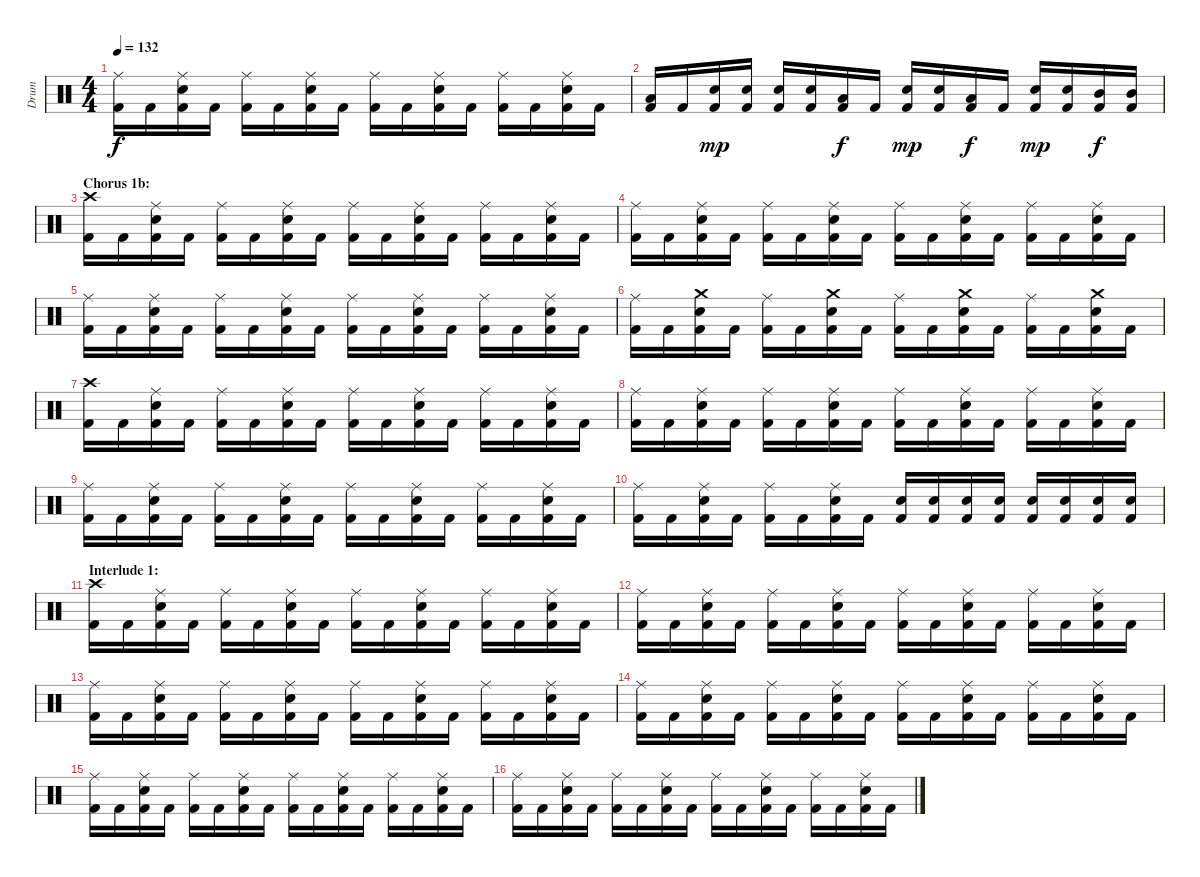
\track ("Drum" "Drum") {instrument percussion}
\staff {score}
\articulation defaults
\ts (4 4)
\tempo 132
\clef neutral
\ks c
("Kick (hit) 2" "Ride (middle)").16{dy f} "Kick (hit) 2".16 ("Kick (hit) 2" "Snare (hit) 2" "Ride (middle)").16 "Kick (hit) 2".16 ("Kick (hit) 2" "Ride (middle)").16 "Kick (hit) 2".16 ("Kick (hit) 2" "Snare (hit) 2" "Ride (middle)").16 "Kick (hit) 2".16 ("Kick (hit) 2" "Ride (middle)").16 "Kick (hit) 2".16 ("Kick (hit) 2" "Snare (hit) 2" "Ride (middle)").16 "Kick (hit) 2".16 ("Kick (hit) 2" "Ride (middle)").16 "Kick (hit) 2".16 ("Kick (hit) 2" "Snare (hit) 2" "Ride (middle)").16 "Kick (hit) 2".16 |
("Kick (hit) 2" "Low Tom (hit)").16 "Kick (hit) 2".16 ("Kick (hit) 2" "Snare (hit) 2").16{dy mp} ("Kick (hit) 2" "Snare (hit) 2").16 ("Kick (hit) 2" "Snare (hit) 2").16 ("Kick (hit) 2" "Snare (hit) 2").16 ("Kick (hit) 2" "Low Tom (hit)").16{dy f} "Kick (hit) 2".16 ("Kick (hit) 2" "Snare (hit) 2").16{dy mp} ("Kick (hit) 2" "Snare (hit) 2").16 ("Kick (hit) 2" "Low Tom (hit)").16{dy f} "Kick (hit) 2".16 ("Kick (hit) 2" "Snare (hit) 2").16{dy mp} ("Kick (hit) 2" "Snare (hit) 2").16 ("Kick (hit) 2" "Mid Tom (hit)").16{dy f} ("Kick (hit) 2" "Mid Tom (hit)").16 |
\section ("" "Chorus 1b:")
("Kick (hit) 2" "Crash high (hit)").16 "Kick (hit) 2".16 ("Kick (hit) 2" "Snare (hit) 2" "Ride (middle)").16 "Kick (hit) 2".16 ("Kick (hit) 2" "Ride (middle)").16 "Kick (hit) 2".16 ("Kick (hit) 2" "Snare (hit) 2" "Ride (middle)").16 "Kick (hit) 2".16 ("Kick (hit) 2" "Ride (middle)").16 "Kick (hit) 2".16 ("Kick (hit) 2" "Snare (hit) 2" "Ride (middle)").16 "Kick (hit) 2".16 ("Kick (hit) 2" "Ride (middle)").16 "Kick (hit) 2".16 ("Kick (hit) 2" "Snare (hit) 2" "Ride (middle)").16 "Kick (hit) 2".16 |
("Kick (hit) 2" "Ride (middle)").16 "Kick (hit) 2".16 ("Kick (hit) 2" "Snare (hit) 2" "Ride (middle)").16 "Kick (hit) 2".16 ("Kick (hit) 2" "Ride (middle)").16 "Kick (hit) 2".16 ("Kick (hit) 2" "Snare (hit) 2" "Ride (middle)").16 "Kick (hit) 2".16 ("Kick (hit) 2" "Ride (middle)").16 "Kick (hit) 2".16 ("Kick (hit) 2" "Snare (hit) 2" "Ride (middle)").16 "Kick (hit) 2".16 ("Kick (hit) 2" "Ride (middle)").16 "Kick (hit) 2".16 ("Kick (hit) 2" "Snare (hit) 2" "Ride (middle)").16 "Kick (hit) 2".16 |
("Kick (hit) 2" "Ride (middle)").16 "Kick (hit) 2".16 ("Kick (hit) 2" "Snare (hit) 2" "Ride (middle)").16 "Kick (hit) 2".16 ("Kick (hit) 2" "Ride (middle)").16 "Kick (hit) 2".16 ("Kick (hit) 2" "Snare (hit) 2" "Ride (middle)").16 "Kick (hit) 2".16 ("Kick (hit) 2" "Ride (middle)").16 "Kick (hit) 2".16 ("Kick (hit) 2" "Snare (hit) 2" "Ride (middle)").16 "Kick (hit) 2".16 ("Kick (hit) 2" "Ride (middle)").16 "Kick (hit) 2".16 ("Kick (hit) 2" "Snare (hit) 2" "Ride (middle)").16 "Kick (hit) 2".16 |
("Kick (hit) 2" "Ride (middle)").16 "Kick (hit) 2".16 ("Kick (hit) 2" "Snare (hit) 2" "Crash medium (hit)").16 "Kick (hit) 2".16 ("Kick (hit) 2" "Ride (middle)").16 "Kick (hit) 2".16 ("Kick (hit) 2" "Snare (hit) 2" "Crash medium (hit)").16 "Kick (hit) 2".16 ("Kick (hit) 2" "Ride (middle)").16 "Kick (hit) 2".16 ("Kick (hit) 2" "Snare (hit) 2" "Crash medium (hit)").16 "Kick (hit) 2".16 ("Kick (hit) 2" "Ride (middle)").16 "Kick (hit) 2".16 ("Kick (hit) 2" "Snare (hit) 2" "Crash medium (hit)").16 "Kick (hit) 2".16 |
("Kick (hit) 2" "Crash high (hit)").16 "Kick (hit) 2".16 ("Kick (hit) 2" "Snare (hit) 2" "Ride (middle)").16 "Kick (hit) 2".16 ("Kick (hit) 2" "Ride (middle)").16 "Kick (hit) 2".16 ("Kick (hit) 2" "Snare (hit) 2" "Ride (middle)").16 "Kick (hit) 2".16 ("Kick (hit) 2" "Ride (middle)").16 "Kick (hit) 2".16 ("Kick (hit) 2" "Snare (hit) 2" "Ride (middle)").16 "Kick (hit) 2".16 ("Kick (hit) 2" "Ride (middle)").16 "Kick (hit) 2".16 ("Kick (hit) 2" "Snare (hit) 2" "Ride (middle)").16 "Kick (hit) 2".16 |
("Kick (hit) 2" "Ride (middle)").16 "Kick (hit) 2".16 ("Kick (hit) 2" "Snare (hit) 2" "Ride (middle)").16 "Kick (hit) 2".16 ("Kick (hit) 2" "Ride (middle)").16 "Kick (hit) 2".16 ("Kick (hit) 2" "Snare (hit) 2" "Ride (middle)").16 "Kick (hit) 2".16 ("Kick (hit) 2" "Ride (middle)").16 "Kick (hit) 2".16 ("Kick (hit) 2" "Snare (hit) 2" "Ride (middle)").16 "Kick (hit) 2".16 ("Kick (hit) 2" "Ride (middle)").16 "Kick (hit) 2".16 ("Kick (hit) 2" "Snare (hit) 2" "Ride (middle)").16 "Kick (hit) 2".16 |
("Kick (hit) 2" "Ride (middle)").16 "Kick (hit) 2".16 ("Kick (hit) 2" "Snare (hit) 2" "Ride (middle)").16 "Kick (hit) 2".16 ("Kick (hit) 2" "Ride (middle)").16 "Kick (hit) 2".16 ("Kick (hit) 2" "Snare (hit) 2" "Ride (middle)").16 "Kick (hit) 2".16 ("Kick (hit) 2" "Ride (middle)").16 "Kick (hit) 2".16 ("Kick (hit) 2" "Snare (hit) 2" "Ride (middle)").16 "Kick (hit) 2".16 ("Kick (hit) 2" "Ride (middle)").16 "Kick (hit) 2".16 ("Kick (hit) 2" "Snare (hit) 2" "Ride (middle)").16 "Kick (hit) 2".16 |
("Kick (hit) 2" "Ride (middle)").16 "Kick (hit) 2".16 ("Kick (hit) 2" "Snare (hit) 2" "Ride (middle)").16 "Kick (hit) 2".16 ("Kick (hit) 2" "Ride (middle)").16 "Kick (hit) 2".16 ("Kick (hit) 2" "Snare (hit) 2" "Ride (middle)").16 "Kick (hit) 2".16 ("Kick (hit) 2" "Snare (hit) 2").16 ("Kick (hit) 2" "Snare (hit) 2").16 ("Kick (hit) 2" "Snare (hit) 2").16 ("Kick (hit) 2" "Snare (hit) 2").16 ("Kick (hit) 2" "Snare (hit) 2").16 ("Kick (hit) 2" "Snare (hit) 2").16 ("Kick (hit) 2" "Snare (hit) 2").16 ("Kick (hit) 2" "Snare (hit) 2").16 |
\section ("" "Interlude 1:")
("Kick (hit) 2" "Crash high (hit)").16 "Kick (hit) 2".16 ("Kick (hit) 2" "Snare (hit) 2" "Ride (middle)").16 "Kick (hit) 2".16 ("Kick (hit) 2" "Ride (middle)").16 "Kick (hit) 2".16 ("Kick (hit) 2" "Snare (hit) 2" "Ride (middle)").16 "Kick (hit) 2".16 ("Kick (hit) 2" "Ride (middle)").16 "Kick (hit) 2".16 ("Kick (hit) 2" "Snare (hit) 2" "Ride (middle)").16 "Kick (hit) 2".16 ("Kick (hit) 2" "Ride (middle)").16 "Kick (hit) 2".16 ("Kick (hit) 2" "Snare (hit) 2" "Ride (middle)").16 "Kick (hit) 2".16 |
("Kick (hit) 2" "Ride (middle)").16 "Kick (hit) 2".16 ("Kick (hit) 2" "Snare (hit) 2" "Ride (middle)").16 "Kick (hit) 2".16 ("Kick (hit) 2" "Ride (middle)").16 "Kick (hit) 2".16 ("Kick (hit) 2" "Snare (hit) 2" "Ride (middle)").16 "Kick (hit) 2".16 ("Kick (hit) 2" "Ride (middle)").16 "Kick (hit) 2".16 ("Kick (hit) 2" "Snare (hit) 2" "Ride (middle)").16 "Kick (hit) 2".16 ("Kick (hit) 2" "Ride (middle)").16 "Kick (hit) 2".16 ("Kick (hit) 2" "Snare (hit) 2" "Ride (middle)").16 "Kick (hit) 2".16 |
("Kick (hit) 2" "Ride (middle)").16 "Kick (hit) 2".16 ("Kick (hit) 2" "Snare (hit) 2" "Ride (middle)").16 "Kick (hit) 2".16 ("Kick (hit) 2" "Ride (middle)").16 "Kick (hit) 2".16 ("Kick (hit) 2" "Snare (hit) 2" "Ride (middle)").16 "Kick (hit) 2".16 ("Kick (hit) 2" "Ride (middle)").16 "Kick (hit) 2".16 ("Kick (hit) 2" "Snare (hit) 2" "Ride (middle)").16 "Kick (hit) 2".16 ("Kick (hit) 2" "Ride (middle)").16 "Kick (hit) 2".16 ("Kick (hit) 2" "Snare (hit) 2" "Ride (middle)").16 "Kick (hit) 2".16 |
("Kick (hit) 2" "Ride (middle)").16 "Kick (hit) 2".16 ("Kick (hit) 2" "Snare (hit) 2" "Ride (middle)").16 "Kick (hit) 2".16 ("Kick (hit) 2" "Ride (middle)").16 "Kick (hit) 2".16 ("Kick (hit) 2" "Snare (hit) 2" "Ride (middle)").16 "Kick (hit) 2".16 ("Kick (hit) 2" "Ride (middle)").16 "Kick (hit) 2".16 ("Kick (hit) 2" "Snare (hit) 2" "Ride (middle)").16 "Kick (hit) 2".16 ("Kick (hit) 2" "Ride (middle)").16 "Kick (hit) 2".16 ("Kick (hit) 2" "Snare (hit) 2" "Ride (middle)").16 "Kick (hit) 2".16 |
("Kick (hit) 2" "Ride (middle)").16 "Kick (hit) 2".16 ("Kick (hit) 2" "Snare (hit) 2" "Ride (middle)").16 "Kick (hit) 2".16 ("Kick (hit) 2" "Ride (middle)").16 "Kick (hit) 2".16 ("Kick (hit) 2" "Snare (hit) 2" "Ride (middle)").16 "Kick (hit) 2".16 ("Kick (hit) 2" "Ride (middle)").16 "Kick (hit) 2".16 ("Kick (hit) 2" "Snare (hit) 2" "Ride (middle)").16 "Kick (hit) 2".16 ("Kick (hit) 2" "Ride (middle)").16 "Kick (hit) 2".16 ("Kick (hit) 2" "Snare (hit) 2" "Ride (middle)").16 "Kick (hit) 2".16 |
("Kick (hit) 2" "Ride (middle)").16 "Kick (hit) 2".16 ("Kick (hit) 2" "Snare (hit) 2" "Ride (middle)").16 "Kick (hit) 2".16 ("Kick (hit) 2" "Ride (middle)").16 "Kick (hit) 2".16 ("Kick (hit) 2" "Snare (hit) 2" "Ride (middle)").16 "Kick (hit) 2".16 ("Kick (hit) 2" "Ride (middle)").16 "Kick (hit) 2".16 ("Kick (hit) 2" "Snare (hit) 2" "Ride (middle)").16 "Kick (hit) 2".16 ("Kick (hit) 2" "Ride (middle)").16 "Kick (hit) 2".16 ("Kick (hit) 2" "Snare (hit) 2" "Ride (middle)").16 "Kick (hit) 2".16
